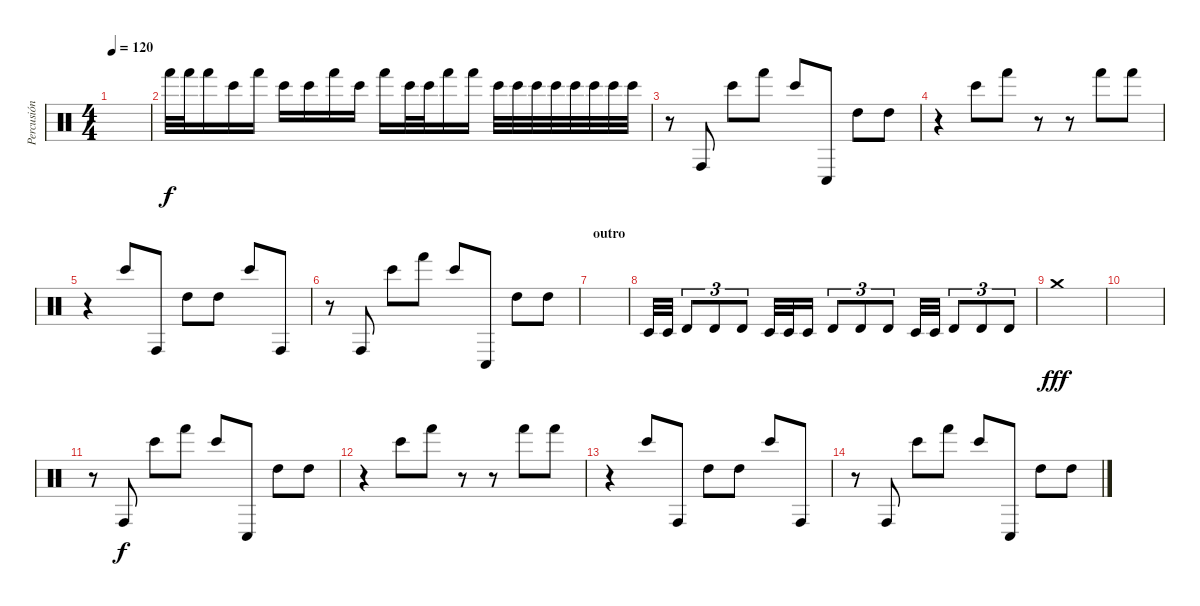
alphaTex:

\track ("Percusión" "Percusión") {instrument percussion}
\staff {score}
\articulation defaults
\ts (4 4)
\tempo 120
\clef neutral
\ks c
|
"Hand (hit)".32 "Hand (hit)".32 "Hand (hit)".16 "Bongo High (hit)".16 "Hand (hit)".16 "Bongo High (hit)".16 "Bongo High (hit)".16 "Hand (hit)".16 "Bongo High (hit)".16 "Hand (hit)".16 "Bongo High (hit)".32 "Bongo High (hit)".32 "Hand (hit)".16 "Hand (hit)".16 "Bongo High (hit)".32 "Bongo High (hit)".32 "Bongo High (hit)".32 "Bongo High (hit)".32 "Bongo High (hit)".32 "Bongo High (hit)".32 "Bongo High (hit)".32 "Bongo High (hit)".32 |
r.8 "Conga high (hit)".8 "Bongo High (hit)".8 "Hand (hit)".8 "Bongo High (hit)".8 "Conga low (hit)".8 "High Tom (hit)".8 "High Tom (hit)".8 |
r.4 "Bongo High (hit)".8 "Hand (hit)".8 r.8 r.8 "Hand (hit)".8 "Hand (hit)".8 |
r.4 "Bongo High (hit)".8 "Conga high (hit)".8 "High Tom (hit)".8 "High Tom (hit)".8 "Bongo High (hit)".8 "Conga high (hit)".8 |
r.8 "Conga high (hit)".8 "Bongo High (hit)".8 "Hand (hit)".8 "Bongo High (hit)".8 "Conga low (hit)".8 "High Tom (hit)".8 "High Tom (hit)".8 |
\section ("" "outro")
|
"Timbale low (hit)".32 "Timbale low (hit)".32 "Timbale high (hit)".8{tu (3 2)} "Timbale high (hit)".8{tu (3 2)} "Timbale high (hit)".8{tu (3 2)} "Timbale low (hit)".32 "Timbale low (hit)".32 "Timbale low (hit)".16 "Timbale high (hit)".8{tu (3 2)} "Timbale high (hit)".8{tu (3 2)} "Timbale high (hit)".8{tu (3 2)} "Timbale low (hit)".32 "Timbale low (hit)".32 "Timbale high (hit)".8{tu (3 2)} "Timbale high (hit)".8{tu (3 2)} "Timbale high (hit)".8{tu (3 2)} |
"Crash medium (hit)".1{dy fff} |
|
r.8 "Conga high (hit)".8{dy f} "Bongo High (hit)".8 "Hand (hit)".8 "Bongo High (hit)".8 "Conga low (hit)".8 "High Tom (hit)".8 "High Tom (hit)".8 |
r.4 "Bongo High (hit)".8 "Hand (hit)".8 r.8 r.8 "Hand (hit)".8 "Hand (hit)".8 |
r.4 "Bongo High (hit)".8 "Conga high (hit)".8 "High Tom (hit)".8 "High Tom (hit)".8 "Bongo High (hit)".8 "Conga high (hit)".8 |
r.8 "Conga high (hit)".8 "Bongo High (hit)".8 "Hand (hit)".8 "Bongo High (hit)".8 "Conga low (hit)".8 "High Tom (hit)".8 "High Tom (hit)".8
